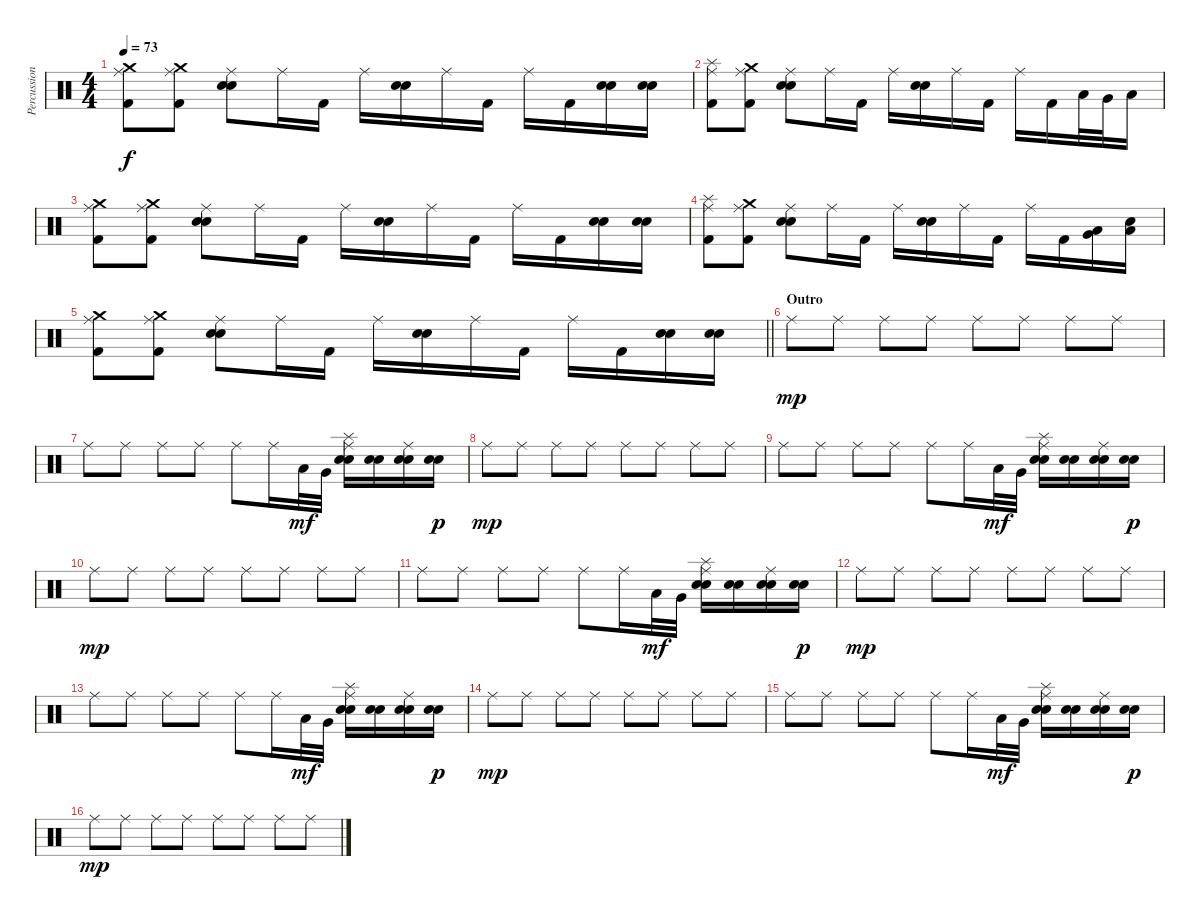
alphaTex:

\track ("Percussion" "Percussion") {instrument percussion}
\staff {score}
\articulation defaults
\ts (4 4)
\tempo 73
\clef neutral
\ks c
("Ride (middle)" "Crash medium (hit)" "Kick (hit) 2").8{dy f} ("Ride (middle)" "Crash medium (hit)" "Kick (hit) 2").8 ("Ride (middle)" "Electric Snare (hit)" "Snare (hit) 2").8 "Ride (middle)".16 "Kick (hit) 2".16 "Ride (middle)".16 ("Electric Snare (hit)" "Snare (hit) 2").16 "Ride (middle)".16 "Kick (hit) 2".16 "Ride (middle)".16 "Kick (hit) 2".16 ("Electric Snare (hit)" "Snare (hit) 2").16 ("Electric Snare (hit)" "Snare (hit) 2").16 |
("Ride (middle)" "Splash (hit)" "Kick (hit) 2").8 ("Ride (middle)" "Crash medium (hit)" "Kick (hit) 2").8 ("Ride (middle)" "Electric Snare (hit)" "Snare (hit) 2").8 "Ride (middle)".16 "Kick (hit) 2".16 "Ride (middle)".16 ("Electric Snare (hit)" "Snare (hit) 2").16 "Ride (middle)".16 "Kick (hit) 2".16 "Ride (middle)".16 "Kick (hit) 2".16 "Low Tom (hit)".32 "Very Low Tom (hit)".32 "Low Floor Tom (hit)".16 |
("Ride (middle)" "Crash medium (hit)" "Kick (hit) 2").8 ("Ride (middle)" "Crash medium (hit)" "Kick (hit) 2").8 ("Ride (middle)" "Electric Snare (hit)" "Snare (hit) 2").8 "Ride (middle)".16 "Kick (hit) 2".16 "Ride (middle)".16 ("Electric Snare (hit)" "Snare (hit) 2").16 "Ride (middle)".16 "Kick (hit) 2".16 "Ride (middle)".16 "Kick (hit) 2".16 ("Electric Snare (hit)" "Snare (hit) 2").16 ("Electric Snare (hit)" "Snare (hit) 2").16 |
("Ride (middle)" "Splash (hit)" "Kick (hit) 2").8 ("Ride (middle)" "Crash medium (hit)" "Kick (hit) 2").8 ("Ride (middle)" "Electric Snare (hit)" "Snare (hit) 2").8 "Ride (middle)".16 "Kick (hit) 2".16 "Ride (middle)".16 ("Electric Snare (hit)" "Snare (hit) 2").16 "Ride (middle)".16 "Kick (hit) 2".16 "Ride (middle)".16 "Kick (hit) 2".16 ("Very Low Tom (hit)" "Low Floor Tom (hit)").16 ("Electric Snare (hit)" "Low Tom (hit)").16 |
\barLineRight lightlight
("Ride (middle)" "Crash medium (hit)" "Kick (hit) 2").8 ("Ride (middle)" "Crash medium (hit)" "Kick (hit) 2").8 ("Ride (middle)" "Electric Snare (hit)" "Snare (hit) 2").8 "Ride (middle)".16 "Kick (hit) 2".16 "Ride (middle)".16 ("Electric Snare (hit)" "Snare (hit) 2").16 "Ride (middle)".16 "Kick (hit) 2".16 "Ride (middle)".16 "Kick (hit) 2".16 ("Electric Snare (hit)" "Snare (hit) 2").16 ("Electric Snare (hit)" "Snare (hit) 2").16 |
\section ("" "Outro")
"Ride (middle)".8{dy mp} "Ride (middle)".8 "Ride (middle)".8 "Ride (middle)".8 "Ride (middle)".8 "Ride (middle)".8 "Ride (middle)".8 "Ride (middle)".8 |
"Ride (middle)".8 "Ride (middle)".8 "Ride (middle)".8 "Ride (middle)".8 "Ride (middle)".8 "Ride (middle)".16 "Low Floor Tom (hit)".32{dy mf} "Very Low Tom (hit)".32 ("Ride (middle)" "Splash (hit)" "Electric Snare (hit)" "Snare (hit) 2").16 ("Electric Snare (hit)" "Snare (hit) 2").16 ("Ride (middle)" "Electric Snare (hit)" "Snare (hit) 2").16 ("Electric Snare (hit)" "Snare (hit) 2").16{dy p} |
"Ride (middle)".8{dy mp} "Ride (middle)".8 "Ride (middle)".8 "Ride (middle)".8 "Ride (middle)".8 "Ride (middle)".8 "Ride (middle)".8 "Ride (middle)".8 |
"Ride (middle)".8 "Ride (middle)".8 "Ride (middle)".8 "Ride (middle)".8 "Ride (middle)".8 "Ride (middle)".16 "Low Floor Tom (hit)".32{dy mf} "Very Low Tom (hit)".32 ("Ride (middle)" "Splash (hit)" "Electric Snare (hit)" "Snare (hit) 2").16 ("Electric Snare (hit)" "Snare (hit) 2").16 ("Ride (middle)" "Electric Snare (hit)" "Snare (hit) 2").16 ("Electric Snare (hit)" "Snare (hit) 2").16{dy p} |
"Ride (middle)".8{dy mp} "Ride (middle)".8 "Ride (middle)".8 "Ride (middle)".8 "Ride (middle)".8 "Ride (middle)".8 "Ride (middle)".8 "Ride (middle)".8 |
"Ride (middle)".8 "Ride (middle)".8 "Ride (middle)".8 "Ride (middle)".8 "Ride (middle)".8 "Ride (middle)".16 "Low Floor Tom (hit)".32{dy mf} "Very Low Tom (hit)".32 ("Ride (middle)" "Splash (hit)" "Electric Snare (hit)" "Snare (hit) 2").16 ("Electric Snare (hit)" "Snare (hit) 2").16 ("Ride (middle)" "Electric Snare (hit)" "Snare (hit) 2").16 ("Electric Snare (hit)" "Snare (hit) 2").16{dy p} |
"Ride (middle)".8{dy mp} "Ride (middle)".8 "Ride (middle)".8 "Ride (middle)".8 "Ride (middle)".8 "Ride (middle)".8 "Ride (middle)".8 "Ride (middle)".8 |
"Ride (middle)".8 "Ride (middle)".8 "Ride (middle)".8 "Ride (middle)".8 "Ride (middle)".8 "Ride (middle)".16 "Low Floor Tom (hit)".32{dy mf} "Very Low Tom (hit)".32 ("Ride (middle)" "Splash (hit)" "Electric Snare (hit)" "Snare (hit) 2").16 ("Electric Snare (hit)" "Snare (hit) 2").16 ("Ride (middle)" "Electric Snare (hit)" "Snare (hit) 2").16 ("Electric Snare (hit)" "Snare (hit) 2").16{dy p} |
"Ride (middle)".8{dy mp} "Ride (middle)".8 "Ride (middle)".8 "Ride (middle)".8 "Ride (middle)".8 "Ride (middle)".8 "Ride (middle)".8 "Ride (middle)".8 |
"Ride (middle)".8 "Ride (middle)".8 "Ride (middle)".8 "Ride (middle)".8 "Ride (middle)".8 "Ride (middle)".16 "Low Floor Tom (hit)".32{dy mf} "Very Low Tom (hit)".32 ("Ride (middle)" "Splash (hit)" "Electric Snare (hit)" "Snare (hit) 2").16 ("Electric Snare (hit)" "Snare (hit) 2").16 ("Ride (middle)" "Electric Snare (hit)" "Snare (hit) 2").16 ("Electric Snare (hit)" "Snare (hit) 2").16{dy p} |
"Ride (middle)".8{dy mp} "Ride (middle)".8 "Ride (middle)".8 "Ride (middle)".8 "Ride (middle)".8 "Ride (middle)".8 "Ride (middle)".8 "Ride (middle)".8
